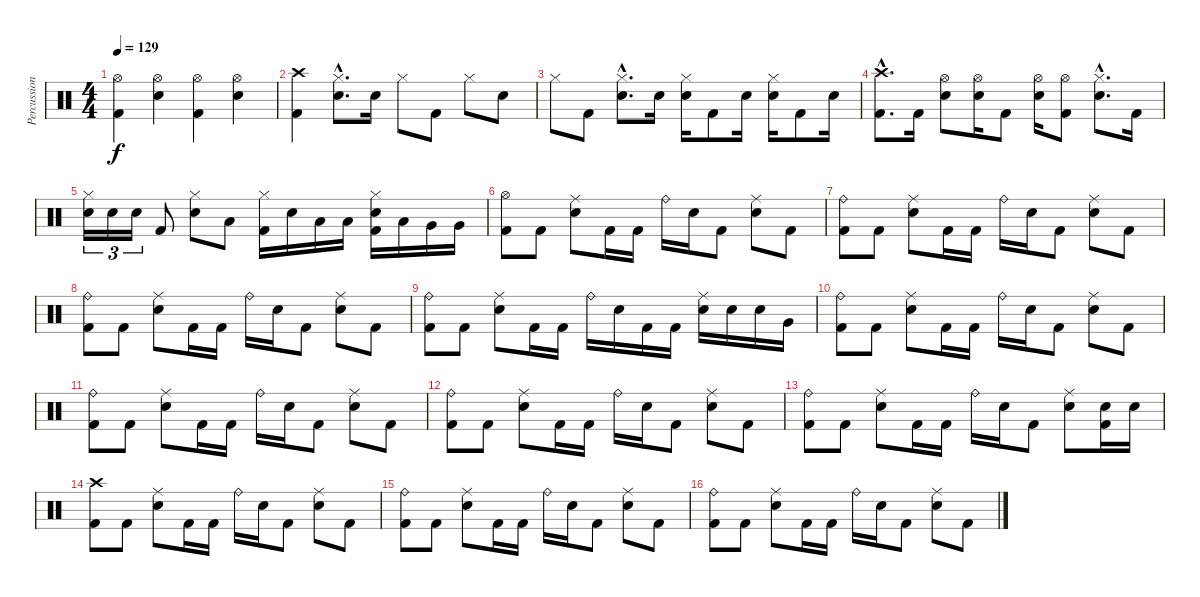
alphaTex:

\track ("Percussions" "Percussion") {instrument percussion}
\staff {score}
\articulation defaults
\ts (4 4)
\tempo 129
\clef neutral
\ks c
("Hi-Hat (open)" "Kick (hit) 2").4{dy f} ("Hi-Hat (open)" "Electric Snare (hit)").4 ("Hi-Hat (open)" "Kick (hit) 2").4 ("Hi-Hat (open)" "Electric Snare (hit)").4 |
("Crash high (hit)" "Kick (hit) 2").4 ("Hi-Hat (closed)"{hac} "Electric Snare (hit)"{hac}).8{d} "Electric Snare (hit)".16 "Hi-Hat (closed)".8 "Kick (hit) 2".8 "Hi-Hat (closed)".8 "Electric Snare (hit)".8 |
"Hi-Hat (closed)".8 "Kick (hit) 2".8 ("Hi-Hat (closed)"{hac} "Electric Snare (hit)"{hac}).8{d} "Electric Snare (hit)".16 ("Hi-Hat (closed)" "Electric Snare (hit)").16 "Kick (hit) 2".8 "Electric Snare (hit)".16 ("Hi-Hat (closed)" "Electric Snare (hit)").16 "Kick (hit) 2".8 "Electric Snare (hit)".16 |
("Crash high (hit)"{hac} "Kick (hit) 2"{hac}).8{d} "Kick (hit) 2".16 ("Hi-Hat (open)" "Electric Snare (hit)").8 ("Hi-Hat (open)" "Electric Snare (hit)").16 "Kick (hit) 2".8 ("Hi-Hat (open)" "Electric Snare (hit)").16 ("Hi-Hat (open)" "Kick (hit) 2").8 ("Hi-Hat (closed)"{hac} "Electric Snare (hit)"{hac}).8{d} "Kick (hit) 2".16 |
("Hi-Hat (closed)" "Electric Snare (hit)").16{tu (3 2)} "Electric Snare (hit)".16{tu (3 2)} "Electric Snare (hit)".16{tu (3 2)} "Kick (hit) 2".8 ("Hi-Hat (closed)" "Electric Snare (hit)").8 "Low Tom (hit)".8 ("Hi-Hat (closed)" "Kick (hit) 2").16 "Electric Snare (hit)".16 "Low Tom (hit)".16 "Low Tom (hit)".16 ("Hi-Hat (closed)" "Electric Snare (hit)" "Kick (hit) 2").16 "Low Tom (hit)".16 "Very Low Tom (hit)".16 "Very Low Tom (hit)".16 |
("Hi-Hat (open)" "Kick (hit) 2").8 "Kick (hit) 2".8 ("Ride (middle)" "Electric Snare (hit)").8 "Kick (hit) 2".16 "Kick (hit) 2".16 "Ride (bell)".16 "Electric Snare (hit)".16 "Kick (hit) 2".8 ("Ride (middle)" "Electric Snare (hit)").8 "Kick (hit) 2".8 |
("Ride (bell)" "Kick (hit) 2").8 "Kick (hit) 2".8 ("Ride (middle)" "Electric Snare (hit)").8 "Kick (hit) 2".16 "Kick (hit) 2".16 "Ride (bell)".16 "Electric Snare (hit)".16 "Kick (hit) 2".8 ("Ride (middle)" "Electric Snare (hit)").8 "Kick (hit) 2".8 |
("Ride (bell)" "Kick (hit) 2").8 "Kick (hit) 2".8 ("Ride (middle)" "Electric Snare (hit)").8 "Kick (hit) 2".16 "Kick (hit) 2".16 "Ride (bell)".16 "Electric Snare (hit)".16 "Kick (hit) 2".8 ("Ride (middle)" "Electric Snare (hit)").8 "Kick (hit) 2".8 |
("Ride (bell)" "Kick (hit) 2").8 "Kick (hit) 2".8 ("Ride (middle)" "Electric Snare (hit)").8 "Kick (hit) 2".16 "Kick (hit) 2".16 "Ride (bell)".16 "Electric Snare (hit)".16 "Kick (hit) 2".16 "Kick (hit) 2".16 ("Ride (middle)" "Electric Snare (hit)").16 "Electric Snare (hit)".16 "Electric Snare (hit)".16 "Very Low Tom (hit)".16 |
("Ride (bell)" "Kick (hit) 2").8 "Kick (hit) 2".8 ("Ride (middle)" "Electric Snare (hit)").8 "Kick (hit) 2".16 "Kick (hit) 2".16 "Ride (bell)".16 "Electric Snare (hit)".16 "Kick (hit) 2".8 ("Ride (middle)" "Electric Snare (hit)").8 "Kick (hit) 2".8 |
("Ride (bell)" "Kick (hit) 2").8 "Kick (hit) 2".8 ("Ride (middle)" "Electric Snare (hit)").8 "Kick (hit) 2".16 "Kick (hit) 2".16 "Ride (bell)".16 "Electric Snare (hit)".16 "Kick (hit) 2".8 ("Ride (middle)" "Electric Snare (hit)").8 "Kick (hit) 2".8 |
("Ride (bell)" "Kick (hit) 2").8 "Kick (hit) 2".8 ("Ride (middle)" "Electric Snare (hit)").8 "Kick (hit) 2".16 "Kick (hit) 2".16 "Ride (bell)".16 "Electric Snare (hit)".16 "Kick (hit) 2".8 ("Ride (middle)" "Electric Snare (hit)").8 "Kick (hit) 2".8 |
("Ride (bell)" "Kick (hit) 2").8 "Kick (hit) 2".8 ("Ride (middle)" "Electric Snare (hit)").8 "Kick (hit) 2".16 "Kick (hit) 2".16 "Ride (bell)".16 "Electric Snare (hit)".16 "Kick (hit) 2".8 ("Ride (middle)" "Electric Snare (hit)").8 ("Electric Snare (hit)" "Kick (hit) 2").16 "Electric Snare (hit)".16 |
("Crash high (hit)" "Kick (hit) 2").8 "Kick (hit) 2".8 ("Ride (middle)" "Electric Snare (hit)").8 "Kick (hit) 2".16 "Kick (hit) 2".16 "Ride (bell)".16 "Electric Snare (hit)".16 "Kick (hit) 2".8 ("Ride (middle)" "Electric Snare (hit)").8 "Kick (hit) 2".8 |
("Ride (bell)" "Kick (hit) 2").8 "Kick (hit) 2".8 ("Ride (middle)" "Electric Snare (hit)").8 "Kick (hit) 2".16 "Kick (hit) 2".16 "Ride (bell)".16 "Electric Snare (hit)".16 "Kick (hit) 2".8 ("Ride (middle)" "Electric Snare (hit)").8 "Kick (hit) 2".8 |
("Ride (bell)" "Kick (hit) 2").8 "Kick (hit) 2".8 ("Ride (middle)" "Electric Snare (hit)").8 "Kick (hit) 2".16 "Kick (hit) 2".16 "Ride (bell)".16 "Electric Snare (hit)".16 "Kick (hit) 2".8 ("Ride (middle)" "Electric Snare (hit)").8 "Kick (hit) 2".8
